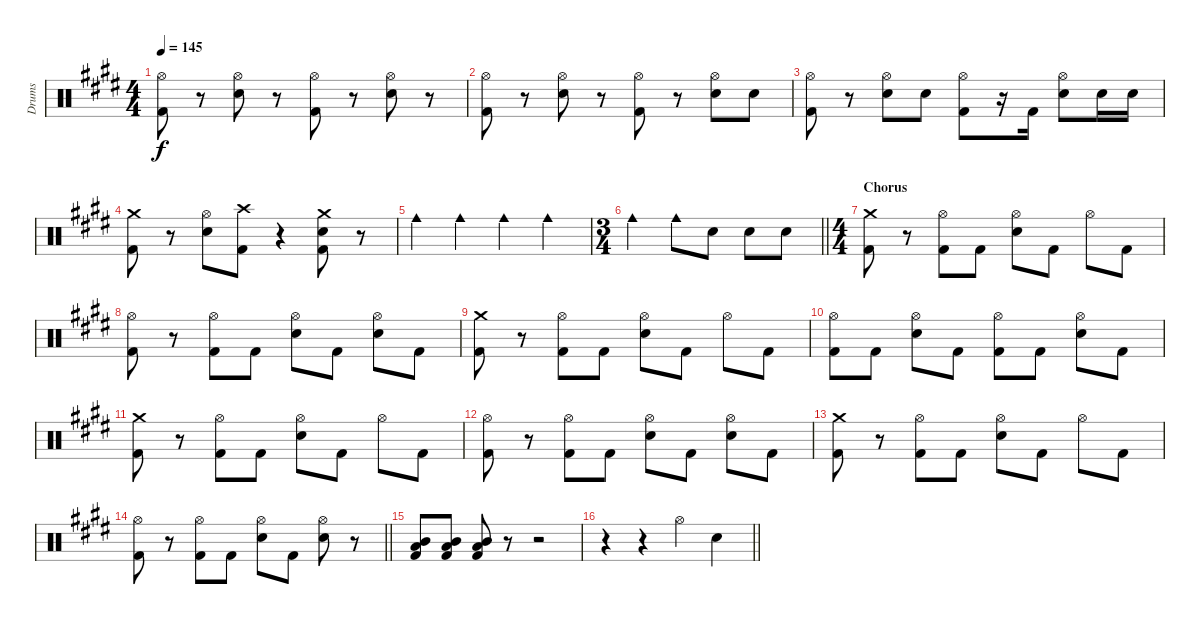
\track ("Drums" "Drums") {instrument percussion}
\staff {score}
\articulation defaults
\ts (4 4)
\tempo 145
\clef neutral
\ks e
("Hi-Hat (open)" "Kick (hit) 2").8{dy f} r.8 ("Hi-Hat (open)" "Electric Snare (hit)").8 r.8 ("Hi-Hat (open)" "Kick (hit) 2").8 r.8 ("Hi-Hat (open)" "Electric Snare (hit)").8 r.8 |
("Hi-Hat (open)" "Kick (hit) 2").8 r.8 ("Hi-Hat (open)" "Electric Snare (hit)").8 r.8 ("Hi-Hat (open)" "Kick (hit) 2").8 r.8 ("Hi-Hat (open)" "Electric Snare (hit)").8 "Electric Snare (hit)".8 |
("Hi-Hat (open)" "Kick (hit) 2").8 r.8 ("Hi-Hat (open)" "Electric Snare (hit)").8 "Electric Snare (hit)".8 ("Hi-Hat (open)" "Kick (hit) 2").8 r.16 "Kick (hit) 2".16 ("Hi-Hat (open)" "Electric Snare (hit)").8 "Electric Snare (hit)".16 "Electric Snare (hit)".16 |
("Crash medium (hit)" "Kick (hit) 2").8 r.8 ("Hi-Hat (open)" "Electric Snare (hit)").8 ("Crash high (hit)" "Kick (hit) 2").8 r.4 ("Crash medium (hit)" "Electric Snare (hit)" "Kick (hit) 2").8 r.8 |
"Cowbell medium (hit)".4 "Cowbell medium (hit)".4 "Cowbell medium (hit)".4 "Cowbell medium (hit)".4 |
\ts (3 4)
\barLineRight lightlight "Cowbell medium (hit)".4 "Cowbell medium (hit)".8 "Electric Snare (hit)".8 "Electric Snare (hit)".8 "Electric Snare (hit)".8
|
\ts (4 4)
\section ("" "Chorus")
("Crash medium (hit)" "Kick (hit) 2").8 r.8 ("Hi-Hat (open)" "Kick (hit) 2").8 "Kick (hit) 2".8 ("Hi-Hat (open)" "Electric Snare (hit)").8 "Kick (hit) 2".8 "Hi-Hat (open)".8 "Kick (hit) 2".8 |
("Hi-Hat (open)" "Kick (hit) 2").8 r.8 ("Hi-Hat (open)" "Kick (hit) 2").8 "Kick (hit) 2".8 ("Hi-Hat (open)" "Electric Snare (hit)").8 "Kick (hit) 2".8 ("Hi-Hat (open)" "Electric Snare (hit)").8 "Kick (hit) 2".8 |
("Crash medium (hit)" "Kick (hit) 2").8 r.8 ("Hi-Hat (open)" "Kick (hit) 2").8 "Kick (hit) 2".8 ("Hi-Hat (open)" "Electric Snare (hit)").8 "Kick (hit) 2".8 "Hi-Hat (open)".8 "Kick (hit) 2".8 |
("Hi-Hat (open)" "Kick (hit) 2").8 "Kick (hit) 2".8 ("Hi-Hat (open)" "Electric Snare (hit)").8 "Kick (hit) 2".8 ("Hi-Hat (open)" "Kick (hit) 2").8 "Kick (hit) 2".8 ("Hi-Hat (open)" "Electric Snare (hit)").8 "Kick (hit) 2".8 |
("Crash medium (hit)" "Kick (hit) 2").8 r.8 ("Hi-Hat (open)" "Kick (hit) 2").8 "Kick (hit) 2".8 ("Hi-Hat (open)" "Electric Snare (hit)").8 "Kick (hit) 2".8 "Hi-Hat (open)".8 "Kick (hit) 2".8 |
("Hi-Hat (open)" "Kick (hit) 2").8 r.8 ("Hi-Hat (open)" "Kick (hit) 2").8 "Kick (hit) 2".8 ("Hi-Hat (open)" "Electric Snare (hit)").8 "Kick (hit) 2".8 ("Hi-Hat (open)" "Electric Snare (hit)").8 "Kick (hit) 2".8 |
("Crash medium (hit)" "Kick (hit) 2").8 r.8 ("Hi-Hat (open)" "Kick (hit) 2").8 "Kick (hit) 2".8 ("Hi-Hat (open)" "Electric Snare (hit)").8 "Kick (hit) 2".8 "Hi-Hat (open)".8 "Kick (hit) 2".8 |
\barLineRight lightlight
("Hi-Hat (open)" "Kick (hit) 2").8 r.8 ("Hi-Hat (open)" "Kick (hit) 2").8 "Kick (hit) 2".8 ("Hi-Hat (open)" "Electric Snare (hit)").8 "Kick (hit) 2".8 ("Hi-Hat (open)" "Electric Snare (hit)").8 r.8 |
("Mid Tom (hit)" "Low Tom (hit)" "Kick (hit) 2").8 ("Mid Tom (hit)" "Low Tom (hit)" "Kick (hit) 2").8 ("Mid Tom (hit)" "Low Tom (hit)" "Kick (hit) 2").8 r.8 r.2 |
\barLineRight lightlight
r.4 r.4 "Hi-Hat (open)".4 "Snare (hit) 2".4
